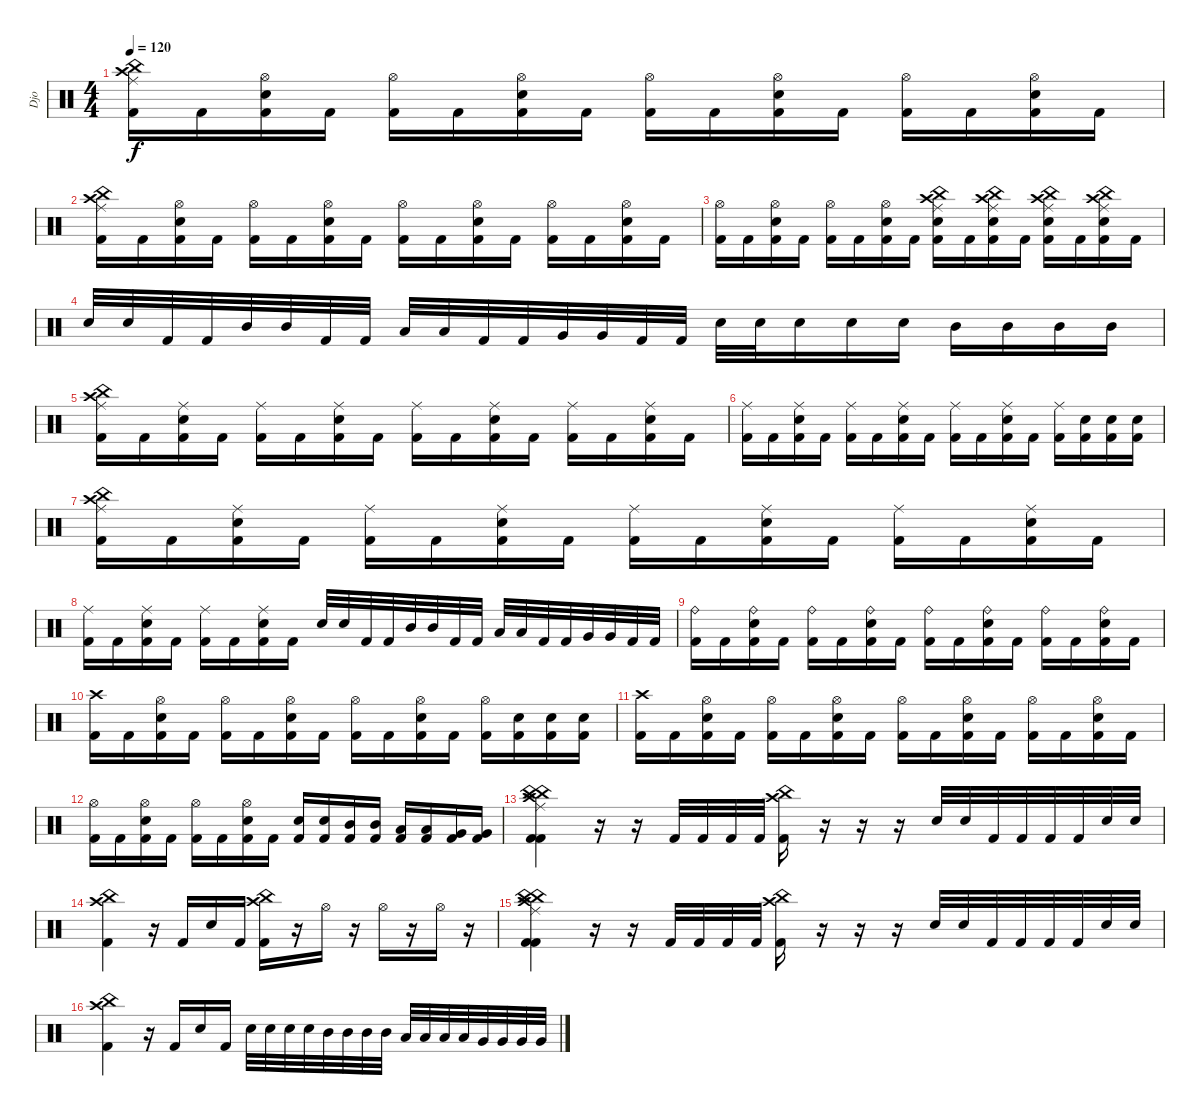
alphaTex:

\track ("Djo" "Djo") {instrument percussion}
\staff {score}
\articulation defaults
\ts (4 4)
\tempo 120
\clef neutral
\ks c
("China (hit)" "Crash high (hit)" "Ride (middle)" "Kick (hit) 2").16{dy f} "Kick (hit) 2".16 ("Hi-Hat (open)" "Electric Snare (hit)" "Kick (hit) 2").16 "Kick (hit) 2".16 ("Hi-Hat (open)" "Kick (hit) 2").16 "Kick (hit) 2".16 ("Hi-Hat (open)" "Electric Snare (hit)" "Kick (hit) 2").16 "Kick (hit) 2".16 ("Hi-Hat (open)" "Kick (hit) 2").16 "Kick (hit) 2".16 ("Hi-Hat (open)" "Electric Snare (hit)" "Kick (hit) 2").16 "Kick (hit) 2".16 ("Hi-Hat (open)" "Kick (hit) 2").16 "Kick (hit) 2".16 ("Hi-Hat (open)" "Electric Snare (hit)" "Kick (hit) 2").16 "Kick (hit) 2".16 |
("China (hit)" "Crash high (hit)" "Ride (middle)" "Kick (hit) 2").16 "Kick (hit) 2".16 ("Hi-Hat (open)" "Electric Snare (hit)" "Kick (hit) 2").16 "Kick (hit) 2".16 ("Hi-Hat (open)" "Kick (hit) 2").16 "Kick (hit) 2".16 ("Hi-Hat (open)" "Electric Snare (hit)" "Kick (hit) 2").16 "Kick (hit) 2".16 ("Hi-Hat (open)" "Kick (hit) 2").16 "Kick (hit) 2".16 ("Hi-Hat (open)" "Electric Snare (hit)" "Kick (hit) 2").16 "Kick (hit) 2".16 ("Hi-Hat (open)" "Kick (hit) 2").16 "Kick (hit) 2".16 ("Hi-Hat (open)" "Electric Snare (hit)" "Kick (hit) 2").16 "Kick (hit) 2".16 |
("Hi-Hat (open)" "Kick (hit) 2").16 "Kick (hit) 2".16 ("Hi-Hat (open)" "Electric Snare (hit)" "Kick (hit) 2").16 "Kick (hit) 2".16 ("Hi-Hat (open)" "Kick (hit) 2").16 "Kick (hit) 2".16 ("Hi-Hat (open)" "Electric Snare (hit)" "Kick (hit) 2").16 "Kick (hit) 2".16 ("China (hit)" "Ride (middle)" "Crash high (hit)" "Electric Snare (hit)" "Kick (hit) 2").16 "Kick (hit) 2".16 ("China (hit)" "Ride (middle)" "Crash high (hit)" "Electric Snare (hit)" "Kick (hit) 2").16 "Kick (hit) 2".16 ("China (hit)" "Ride (middle)" "Crash high (hit)" "Electric Snare (hit)" "Kick (hit) 2").16 "Kick (hit) 2".16 ("China (hit)" "Ride (middle)" "Crash high (hit)" "Electric Snare (hit)" "Kick (hit) 2").16 "Kick (hit) 2".16 |
"Snare (hit) 2".32 "Snare (hit) 2".32 "Kick (hit) 2".32 "Kick (hit) 2".32 "Mid Tom (hit)".32 "Mid Tom (hit)".32 "Kick (hit) 2".32 "Kick (hit) 2".32 "Low Tom (hit)".32 "Low Tom (hit)".32 "Kick (hit) 2".32 "Kick (hit) 2".32 "Very Low Tom (hit)".32 "Very Low Tom (hit)".32 "Kick (hit) 2".32 "Kick (hit) 2".32 "Snare (hit) 2".32 "Snare (hit) 2".32 "Snare (hit) 2".16 "Snare (hit) 2".16 "Snare (hit) 2".16 "Mid Tom (hit)".16 "Mid Tom (hit)".16 "Mid Tom (hit)".16 "Mid Tom (hit)".16 |
("China (hit)" "Crash high (hit)" "Ride (middle)" "Kick (hit) 2").16 "Kick (hit) 2".16 ("Ride (middle)" "Electric Snare (hit)" "Kick (hit) 2").16 "Kick (hit) 2".16 ("Ride (middle)" "Kick (hit) 2").16 "Kick (hit) 2".16 ("Ride (middle)" "Electric Snare (hit)" "Kick (hit) 2").16 "Kick (hit) 2".16 ("Ride (middle)" "Kick (hit) 2").16 "Kick (hit) 2".16 ("Ride (middle)" "Electric Snare (hit)" "Kick (hit) 2").16 "Kick (hit) 2".16 ("Ride (middle)" "Kick (hit) 2").16 "Kick (hit) 2".16 ("Ride (middle)" "Electric Snare (hit)" "Kick (hit) 2").16 "Kick (hit) 2".16 |
("Ride (middle)" "Kick (hit) 2").16 "Kick (hit) 2".16 ("Ride (middle)" "Electric Snare (hit)" "Kick (hit) 2").16 "Kick (hit) 2".16 ("Ride (middle)" "Kick (hit) 2").16 "Kick (hit) 2".16 ("Ride (middle)" "Electric Snare (hit)" "Kick (hit) 2").16 "Kick (hit) 2".16 ("Ride (middle)" "Kick (hit) 2").16 "Kick (hit) 2".16 ("Ride (middle)" "Electric Snare (hit)" "Kick (hit) 2").16 "Kick (hit) 2".16 ("Ride (middle)" "Kick (hit) 2").16 ("Electric Snare (hit)" "Kick (hit) 2").16 ("Electric Snare (hit)" "Kick (hit) 2").16 ("Electric Snare (hit)" "Kick (hit) 2").16 |
("China (hit)" "Crash high (hit)" "Ride (middle)" "Kick (hit) 2").16 "Kick (hit) 2".16 ("Ride (middle)" "Electric Snare (hit)" "Kick (hit) 2").16 "Kick (hit) 2".16 ("Ride (middle)" "Kick (hit) 2").16 "Kick (hit) 2".16 ("Ride (middle)" "Electric Snare (hit)" "Kick (hit) 2").16 "Kick (hit) 2".16 ("Ride (middle)" "Kick (hit) 2").16 "Kick (hit) 2".16 ("Ride (middle)" "Electric Snare (hit)" "Kick (hit) 2").16 "Kick (hit) 2".16 ("Ride (middle)" "Kick (hit) 2").16 "Kick (hit) 2".16 ("Ride (middle)" "Electric Snare (hit)" "Kick (hit) 2").16 "Kick (hit) 2".16 |
("Ride (middle)" "Kick (hit) 2").16 "Kick (hit) 2".16 ("Ride (middle)" "Electric Snare (hit)" "Kick (hit) 2").16 "Kick (hit) 2".16 ("Ride (middle)" "Kick (hit) 2").16 "Kick (hit) 2".16 ("Ride (middle)" "Electric Snare (hit)" "Kick (hit) 2").16 "Kick (hit) 2".16 "Snare (hit) 2".32 "Snare (hit) 2".32 "Kick (hit) 2".32 "Kick (hit) 2".32 "Mid Tom (hit)".32 "Mid Tom (hit)".32 "Kick (hit) 2".32 "Kick (hit) 2".32 "Low Tom (hit)".32 "Low Tom (hit)".32 "Kick (hit) 2".32 "Kick (hit) 2".32 "Very Low Tom (hit)".32 "Very Low Tom (hit)".32 "Kick (hit) 2".32 "Kick (hit) 2".32 |
("Ride (bell)" "Kick (hit) 2").16 "Kick (hit) 2".16 ("Ride (bell)" "Electric Snare (hit)" "Kick (hit) 2").16 "Kick (hit) 2".16 ("Ride (bell)" "Kick (hit) 2").16 "Kick (hit) 2".16 ("Ride (bell)" "Electric Snare (hit)" "Kick (hit) 2").16 "Kick (hit) 2".16 ("Ride (bell)" "Kick (hit) 2").16 "Kick (hit) 2".16 ("Ride (bell)" "Electric Snare (hit)" "Kick (hit) 2").16 "Kick (hit) 2".16 ("Ride (bell)" "Kick (hit) 2").16 "Kick (hit) 2".16 ("Ride (bell)" "Electric Snare (hit)" "Kick (hit) 2").16 "Kick (hit) 2".16 |
("Crash high (hit)" "Kick (hit) 2").16 "Kick (hit) 2".16 ("Hi-Hat (open)" "Electric Snare (hit)" "Kick (hit) 2").16 "Kick (hit) 2".16 ("Hi-Hat (open)" "Kick (hit) 2").16 "Kick (hit) 2".16 ("Hi-Hat (open)" "Electric Snare (hit)" "Kick (hit) 2").16 "Kick (hit) 2".16 ("Hi-Hat (open)" "Kick (hit) 2").16 "Kick (hit) 2".16 ("Hi-Hat (open)" "Electric Snare (hit)" "Kick (hit) 2").16 "Kick (hit) 2".16 ("Hi-Hat (open)" "Kick (hit) 2").16 ("Electric Snare (hit)" "Kick (hit) 2").16 ("Electric Snare (hit)" "Kick (hit) 2").16 ("Electric Snare (hit)" "Kick (hit) 2").16 |
("Crash high (hit)" "Kick (hit) 2").16 "Kick (hit) 2".16 ("Hi-Hat (open)" "Electric Snare (hit)" "Kick (hit) 2").16 "Kick (hit) 2".16 ("Hi-Hat (open)" "Kick (hit) 2").16 "Kick (hit) 2".16 ("Hi-Hat (open)" "Electric Snare (hit)" "Kick (hit) 2").16 "Kick (hit) 2".16 ("Hi-Hat (open)" "Kick (hit) 2").16 "Kick (hit) 2".16 ("Hi-Hat (open)" "Electric Snare (hit)" "Kick (hit) 2").16 "Kick (hit) 2".16 ("Hi-Hat (open)" "Kick (hit) 2").16 "Kick (hit) 2".16 ("Hi-Hat (open)" "Electric Snare (hit)" "Kick (hit) 2").16 "Kick (hit) 2".16 |
("Hi-Hat (open)" "Kick (hit) 2").16 "Kick (hit) 2".16 ("Hi-Hat (open)" "Electric Snare (hit)" "Kick (hit) 2").16 "Kick (hit) 2".16 ("Hi-Hat (open)" "Kick (hit) 2").16 "Kick (hit) 2".16 ("Hi-Hat (open)" "Electric Snare (hit)" "Kick (hit) 2").16 "Kick (hit) 2".16 ("Electric Snare (hit)" "Kick (hit) 2").16 ("Electric Snare (hit)" "Kick (hit) 2").16 ("Mid Tom (hit)" "Kick (hit) 2").16 ("Mid Tom (hit)" "Kick (hit) 2").16 ("Low Tom (hit)" "Kick (hit) 2").16 ("Low Tom (hit)" "Kick (hit) 2").16 ("Very Low Tom (hit)" "Kick (hit) 2").16 ("Very Low Tom (hit)" "Kick (hit) 2").16 |
("China (hit)" "China (hit)" "Crash high (hit)" "Ride (middle)" "Kick (hit) 2" "Kick (hit) 2").4 r.16 r.16 "Kick (hit) 2".32 "Kick (hit) 2".32 "Kick (hit) 2".32 "Kick (hit) 2".32 ("Crash high (hit)" "China (hit)" "Kick (hit) 2").16 r.16 r.16 r.16 "Electric Snare (hit)".32 "Electric Snare (hit)".32 "Kick (hit) 2".32 "Kick (hit) 2".32 "Kick (hit) 2".32 "Kick (hit) 2".32 "Electric Snare (hit)".32 "Electric Snare (hit)".32 |
("Crash high (hit)" "China (hit)" "Kick (hit) 2").4 r.16 "Kick (hit) 2".16 "Electric Snare (hit)".16 "Kick (hit) 2".16 ("Crash high (hit)" "China (hit)" "Kick (hit) 2").16 r.16 "Hi-Hat (open)".16 r.16 "Hi-Hat (open)".16 r.16 "Hi-Hat (open)".16 r.16 |
("China (hit)" "China (hit)" "Crash high (hit)" "Ride (middle)" "Kick (hit) 2" "Kick (hit) 2").4 r.16 r.16 "Kick (hit) 2".32 "Kick (hit) 2".32 "Kick (hit) 2".32 "Kick (hit) 2".32 ("Crash high (hit)" "China (hit)" "Kick (hit) 2").16 r.16 r.16 r.16 "Electric Snare (hit)".32 "Electric Snare (hit)".32 "Kick (hit) 2".32 "Kick (hit) 2".32 "Kick (hit) 2".32 "Kick (hit) 2".32 "Electric Snare (hit)".32 "Electric Snare (hit)".32 |
("Crash high (hit)" "China (hit)" "Kick (hit) 2").4 r.16 "Kick (hit) 2".16 "Electric Snare (hit)".16 "Kick (hit) 2".16 "Electric Snare (hit)".32 "Electric Snare (hit)".32 "Electric Snare (hit)".32 "Electric Snare (hit)".32 "Mid Tom (hit)".32 "Mid Tom (hit)".32 "Mid Tom (hit)".32 "Mid Tom (hit)".32 "Low Tom (hit)".32 "Low Tom (hit)".32 "Low Tom (hit)".32 "Low Tom (hit)".32 "Very Low Tom (hit)".32 "Very Low Tom (hit)".32 "Very Low Tom (hit)".32 "Very Low Tom (hit)".32
